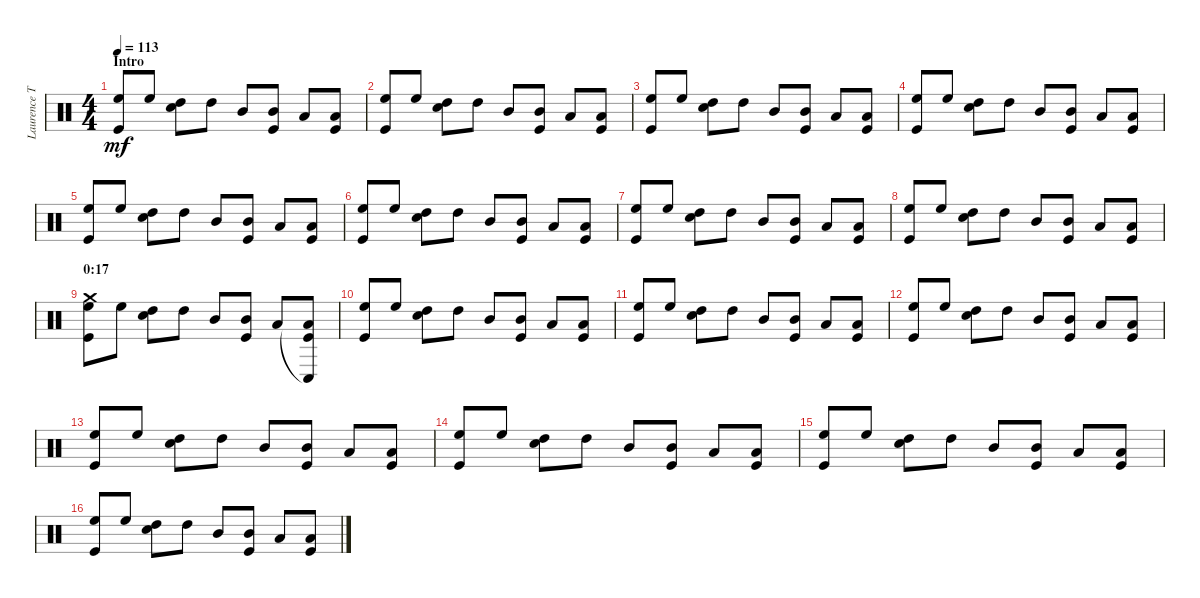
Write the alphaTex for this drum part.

\track ("Laurence Tolhurst (drums)" "Laurence T") {instrument percussion}
\staff {score}
\articulation defaults
\ts (4 4)
\section ("" "Intro")
\tempo 113
\clef neutral
\ks c
("High Floor Tom (hit)" "Kick (hit)").8{dy mf} "High Floor Tom (hit)".8 ("High Tom (hit)" "Snare (hit) 2").8 "High Tom (hit)".8 "Mid Tom (hit)".8 ("Mid Tom (hit)" "Kick (hit)").8 "Low Tom (hit)".8 ("Low Tom (hit)" "Kick (hit)").8 |
("High Floor Tom (hit)" "Kick (hit)").8 "High Floor Tom (hit)".8 ("High Tom (hit)" "Snare (hit) 2").8 "High Tom (hit)".8 "Mid Tom (hit)".8 ("Mid Tom (hit)" "Kick (hit)").8 "Low Tom (hit)".8 ("Low Tom (hit)" "Kick (hit)").8 |
("High Floor Tom (hit)" "Kick (hit)").8 "High Floor Tom (hit)".8 ("High Tom (hit)" "Snare (hit) 2").8 "High Tom (hit)".8 "Mid Tom (hit)".8 ("Mid Tom (hit)" "Kick (hit)").8 "Low Tom (hit)".8 ("Low Tom (hit)" "Kick (hit)").8 |
("High Floor Tom (hit)" "Kick (hit)").8 "High Floor Tom (hit)".8 ("High Tom (hit)" "Snare (hit) 2").8 "High Tom (hit)".8 "Mid Tom (hit)".8 ("Mid Tom (hit)" "Kick (hit)").8 "Low Tom (hit)".8 ("Low Tom (hit)" "Kick (hit)").8 |
("High Floor Tom (hit)" "Kick (hit)").8 "High Floor Tom (hit)".8 ("High Tom (hit)" "Snare (hit) 2").8 "High Tom (hit)".8 "Mid Tom (hit)".8 ("Mid Tom (hit)" "Kick (hit)").8 "Low Tom (hit)".8 ("Low Tom (hit)" "Kick (hit)").8 |
("High Floor Tom (hit)" "Kick (hit)").8 "High Floor Tom (hit)".8 ("High Tom (hit)" "Snare (hit) 2").8 "High Tom (hit)".8 "Mid Tom (hit)".8 ("Mid Tom (hit)" "Kick (hit)").8 "Low Tom (hit)".8 ("Low Tom (hit)" "Kick (hit)").8 |
("High Floor Tom (hit)" "Kick (hit)").8 "High Floor Tom (hit)".8 ("High Tom (hit)" "Snare (hit) 2").8 "High Tom (hit)".8 "Mid Tom (hit)".8 ("Mid Tom (hit)" "Kick (hit)").8 "Low Tom (hit)".8 ("Low Tom (hit)" "Kick (hit)").8 |
("High Floor Tom (hit)" "Kick (hit)").8 "High Floor Tom (hit)".8 ("High Tom (hit)" "Snare (hit) 2").8 "High Tom (hit)".8 "Mid Tom (hit)".8 ("Mid Tom (hit)" "Kick (hit)").8 "Low Tom (hit)".8 ("Low Tom (hit)" "Kick (hit)").8 |
\section ("" "0:17")
("Crash medium (hit)" "High Floor Tom (hit)" "Kick (hit)").8 "High Floor Tom (hit)".8 ("High Tom (hit)" "Snare (hit) 2").8 "High Tom (hit)".8 "Mid Tom (hit)".8 ("Mid Tom (hit)" "Kick (hit)").8 "Low Tom (hit)".8 ("Conga low (hit)"{t} "Low Tom (hit)" "Kick (hit)").8 |
("High Floor Tom (hit)" "Kick (hit)").8 "High Floor Tom (hit)".8 ("High Tom (hit)" "Snare (hit) 2").8 "High Tom (hit)".8 "Mid Tom (hit)".8 ("Mid Tom (hit)" "Kick (hit)").8 "Low Tom (hit)".8 ("Low Tom (hit)" "Kick (hit)").8 |
("High Floor Tom (hit)" "Kick (hit)").8 "High Floor Tom (hit)".8 ("High Tom (hit)" "Snare (hit) 2").8 "High Tom (hit)".8 "Mid Tom (hit)".8 ("Mid Tom (hit)" "Kick (hit)").8 "Low Tom (hit)".8 ("Low Tom (hit)" "Kick (hit)").8 |
("High Floor Tom (hit)" "Kick (hit)").8 "High Floor Tom (hit)".8 ("High Tom (hit)" "Snare (hit) 2").8 "High Tom (hit)".8 "Mid Tom (hit)".8 ("Mid Tom (hit)" "Kick (hit)").8 "Low Tom (hit)".8 ("Low Tom (hit)" "Kick (hit)").8 |
("High Floor Tom (hit)" "Kick (hit)").8 "High Floor Tom (hit)".8 ("High Tom (hit)" "Snare (hit) 2").8 "High Tom (hit)".8 "Mid Tom (hit)".8 ("Mid Tom (hit)" "Kick (hit)").8 "Low Tom (hit)".8 ("Low Tom (hit)" "Kick (hit)").8 |
("High Floor Tom (hit)" "Kick (hit)").8 "High Floor Tom (hit)".8 ("High Tom (hit)" "Snare (hit) 2").8 "High Tom (hit)".8 "Mid Tom (hit)".8 ("Mid Tom (hit)" "Kick (hit)").8 "Low Tom (hit)".8 ("Low Tom (hit)" "Kick (hit)").8 |
("High Floor Tom (hit)" "Kick (hit)").8 "High Floor Tom (hit)".8 ("High Tom (hit)" "Snare (hit) 2").8 "High Tom (hit)".8 "Mid Tom (hit)".8 ("Mid Tom (hit)" "Kick (hit)").8 "Low Tom (hit)".8 ("Low Tom (hit)" "Kick (hit)").8 |
("High Floor Tom (hit)" "Kick (hit)").8 "High Floor Tom (hit)".8 ("High Tom (hit)" "Snare (hit) 2").8 "High Tom (hit)".8 "Mid Tom (hit)".8 ("Mid Tom (hit)" "Kick (hit)").8 "Low Tom (hit)".8 ("Low Tom (hit)" "Kick (hit)").8
